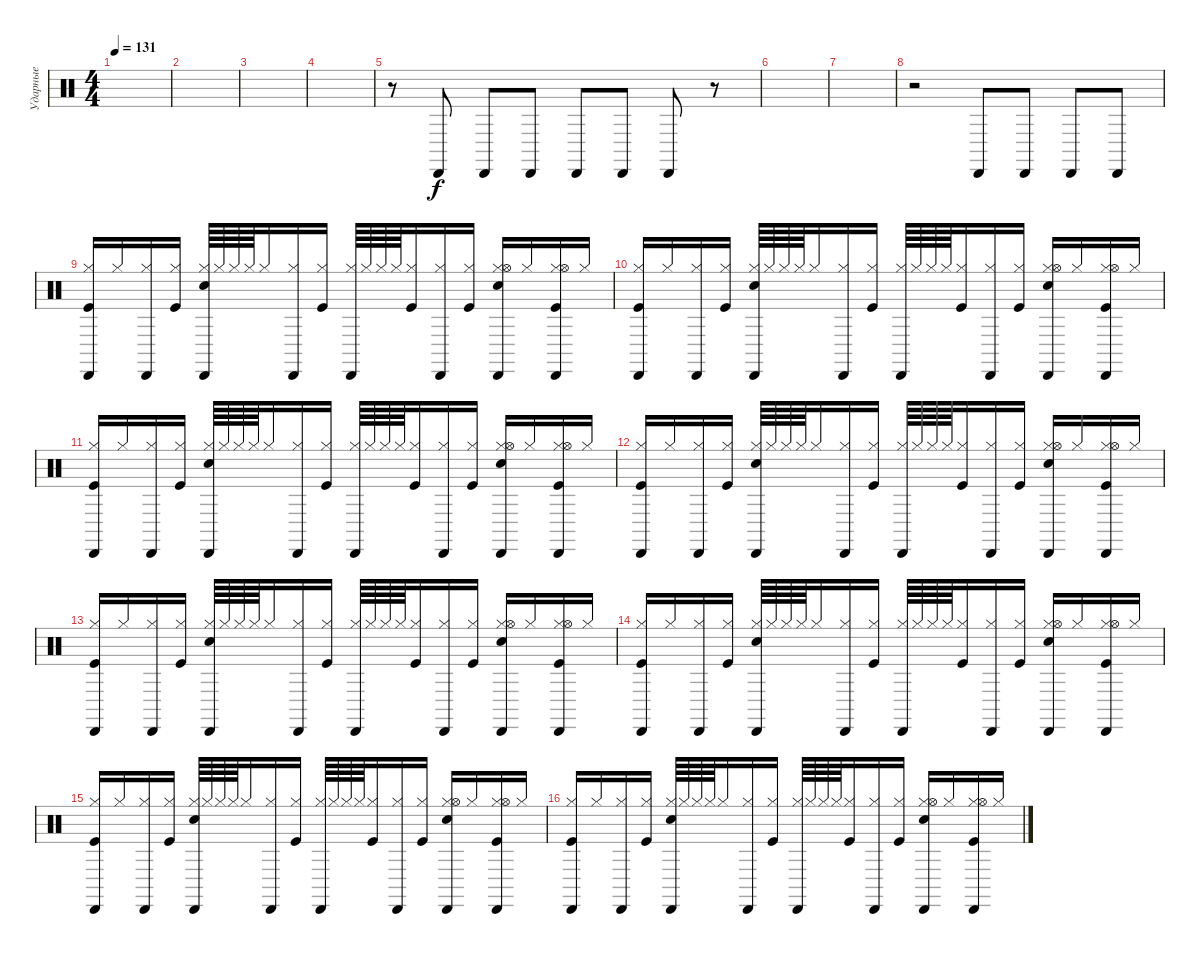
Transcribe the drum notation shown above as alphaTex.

\track ("Ударные" "Ударные") {instrument percussion}
\staff {score}
\articulation defaults
\ts (4 4)
\tempo 131
\clef neutral
\ks c
|
|
|
|
r.8 "Cabasa (hit)".8 "Cabasa (hit)".8 "Cabasa (hit)".8 "Cabasa (hit)".8 "Cabasa (hit)".8 "Cabasa (hit)".8 r.8 |
|
|
r.2 "Cabasa (hit)".8 "Cabasa (hit)".8 "Cabasa (hit)".8 "Cabasa (hit)".8 |
("Hi-Hat (closed)" "Kick (hit)" "Cabasa (hit)").16 "Hi-Hat (closed)".16 ("Hi-Hat (closed)" "Cabasa (hit)").16 ("Hi-Hat (closed)" "Kick (hit)").16 ("Hi-Hat (closed)" "Snare (hit) 2" "Cabasa (hit)").64 "Hi-Hat (closed)".64 "Hi-Hat (closed)".64 "Hi-Hat (closed)".64 "Hi-Hat (closed)".16 ("Hi-Hat (closed)" "Cabasa (hit)").16 ("Hi-Hat (closed)" "Kick (hit)").16 ("Hi-Hat (closed)" "Cabasa (hit)").64 "Hi-Hat (closed)".64 "Hi-Hat (closed)".64 "Hi-Hat (closed)".64 ("Hi-Hat (closed)" "Kick (hit)").16 ("Hi-Hat (closed)" "Cabasa (hit)").16 ("Hi-Hat (closed)" "Kick (hit)").16 ("Hi-Hat (closed)" "Hi-Hat (open)" "Snare (hit) 2" "Cabasa (hit)").16 "Hi-Hat (closed)".16 ("Hi-Hat (closed)" "Hi-Hat (open)" "Kick (hit)" "Cabasa (hit)").16 "Hi-Hat (closed)".16 |
("Hi-Hat (closed)" "Kick (hit)" "Cabasa (hit)").16 "Hi-Hat (closed)".16 ("Hi-Hat (closed)" "Cabasa (hit)").16 ("Hi-Hat (closed)" "Kick (hit)").16 ("Hi-Hat (closed)" "Snare (hit) 2" "Cabasa (hit)").64 "Hi-Hat (closed)".64 "Hi-Hat (closed)".64 "Hi-Hat (closed)".64 "Hi-Hat (closed)".16 ("Hi-Hat (closed)" "Cabasa (hit)").16 ("Hi-Hat (closed)" "Kick (hit)").16 ("Hi-Hat (closed)" "Cabasa (hit)").64 "Hi-Hat (closed)".64 "Hi-Hat (closed)".64 "Hi-Hat (closed)".64 ("Hi-Hat (closed)" "Kick (hit)").16 ("Hi-Hat (closed)" "Cabasa (hit)").16 ("Hi-Hat (closed)" "Kick (hit)").16 ("Hi-Hat (closed)" "Hi-Hat (open)" "Snare (hit) 2" "Cabasa (hit)").16 "Hi-Hat (closed)".16 ("Hi-Hat (closed)" "Hi-Hat (open)" "Kick (hit)" "Cabasa (hit)").16 "Hi-Hat (closed)".16 |
("Hi-Hat (closed)" "Kick (hit)" "Cabasa (hit)").16 "Hi-Hat (closed)".16 ("Hi-Hat (closed)" "Cabasa (hit)").16 ("Hi-Hat (closed)" "Kick (hit)").16 ("Hi-Hat (closed)" "Snare (hit) 2" "Cabasa (hit)").64 "Hi-Hat (closed)".64 "Hi-Hat (closed)".64 "Hi-Hat (closed)".64 "Hi-Hat (closed)".16 ("Hi-Hat (closed)" "Cabasa (hit)").16 ("Hi-Hat (closed)" "Kick (hit)").16 ("Hi-Hat (closed)" "Cabasa (hit)").64 "Hi-Hat (closed)".64 "Hi-Hat (closed)".64 "Hi-Hat (closed)".64 ("Hi-Hat (closed)" "Kick (hit)").16 ("Hi-Hat (closed)" "Cabasa (hit)").16 ("Hi-Hat (closed)" "Kick (hit)").16 ("Hi-Hat (closed)" "Hi-Hat (open)" "Snare (hit) 2" "Cabasa (hit)").16 "Hi-Hat (closed)".16 ("Hi-Hat (closed)" "Hi-Hat (open)" "Kick (hit)" "Cabasa (hit)").16 "Hi-Hat (closed)".16 |
("Hi-Hat (closed)" "Kick (hit)" "Cabasa (hit)").16 "Hi-Hat (closed)".16 ("Hi-Hat (closed)" "Cabasa (hit)").16 ("Hi-Hat (closed)" "Kick (hit)").16 ("Hi-Hat (closed)" "Snare (hit) 2" "Cabasa (hit)").64 "Hi-Hat (closed)".64 "Hi-Hat (closed)".64 "Hi-Hat (closed)".64 "Hi-Hat (closed)".16 ("Hi-Hat (closed)" "Cabasa (hit)").16 ("Hi-Hat (closed)" "Kick (hit)").16 ("Hi-Hat (closed)" "Cabasa (hit)").64 "Hi-Hat (closed)".64 "Hi-Hat (closed)".64 "Hi-Hat (closed)".64 ("Hi-Hat (closed)" "Kick (hit)").16 ("Hi-Hat (closed)" "Cabasa (hit)").16 ("Hi-Hat (closed)" "Kick (hit)").16 ("Hi-Hat (closed)" "Hi-Hat (open)" "Snare (hit) 2" "Cabasa (hit)").16 "Hi-Hat (closed)".16 ("Hi-Hat (closed)" "Hi-Hat (open)" "Kick (hit)" "Cabasa (hit)").16 "Hi-Hat (closed)".16 |
("Hi-Hat (closed)" "Kick (hit)" "Cabasa (hit)").16 "Hi-Hat (closed)".16 ("Hi-Hat (closed)" "Cabasa (hit)").16 ("Hi-Hat (closed)" "Kick (hit)").16 ("Hi-Hat (closed)" "Snare (hit) 2" "Cabasa (hit)").64 "Hi-Hat (closed)".64 "Hi-Hat (closed)".64 "Hi-Hat (closed)".64 "Hi-Hat (closed)".16 ("Hi-Hat (closed)" "Cabasa (hit)").16 ("Hi-Hat (closed)" "Kick (hit)").16 ("Hi-Hat (closed)" "Cabasa (hit)").64 "Hi-Hat (closed)".64 "Hi-Hat (closed)".64 "Hi-Hat (closed)".64 ("Hi-Hat (closed)" "Kick (hit)").16 ("Hi-Hat (closed)" "Cabasa (hit)").16 ("Hi-Hat (closed)" "Kick (hit)").16 ("Hi-Hat (closed)" "Hi-Hat (open)" "Snare (hit) 2" "Cabasa (hit)").16 "Hi-Hat (closed)".16 ("Hi-Hat (closed)" "Hi-Hat (open)" "Kick (hit)" "Cabasa (hit)").16 "Hi-Hat (closed)".16 |
("Hi-Hat (closed)" "Kick (hit)" "Cabasa (hit)").16 "Hi-Hat (closed)".16 ("Hi-Hat (closed)" "Cabasa (hit)").16 ("Hi-Hat (closed)" "Kick (hit)").16 ("Hi-Hat (closed)" "Snare (hit) 2" "Cabasa (hit)").64 "Hi-Hat (closed)".64 "Hi-Hat (closed)".64 "Hi-Hat (closed)".64 "Hi-Hat (closed)".16 ("Hi-Hat (closed)" "Cabasa (hit)").16 ("Hi-Hat (closed)" "Kick (hit)").16 ("Hi-Hat (closed)" "Cabasa (hit)").64 "Hi-Hat (closed)".64 "Hi-Hat (closed)".64 "Hi-Hat (closed)".64 ("Hi-Hat (closed)" "Kick (hit)").16 ("Hi-Hat (closed)" "Cabasa (hit)").16 ("Hi-Hat (closed)" "Kick (hit)").16 ("Hi-Hat (closed)" "Hi-Hat (open)" "Snare (hit) 2" "Cabasa (hit)").16 "Hi-Hat (closed)".16 ("Hi-Hat (closed)" "Hi-Hat (open)" "Kick (hit)" "Cabasa (hit)").16 "Hi-Hat (closed)".16 |
("Hi-Hat (closed)" "Kick (hit)" "Cabasa (hit)").16 "Hi-Hat (closed)".16 ("Hi-Hat (closed)" "Cabasa (hit)").16 ("Hi-Hat (closed)" "Kick (hit)").16 ("Hi-Hat (closed)" "Snare (hit) 2" "Cabasa (hit)").64 "Hi-Hat (closed)".64 "Hi-Hat (closed)".64 "Hi-Hat (closed)".64 "Hi-Hat (closed)".16 ("Hi-Hat (closed)" "Cabasa (hit)").16 ("Hi-Hat (closed)" "Kick (hit)").16 ("Hi-Hat (closed)" "Cabasa (hit)").64 "Hi-Hat (closed)".64 "Hi-Hat (closed)".64 "Hi-Hat (closed)".64 ("Hi-Hat (closed)" "Kick (hit)").16 ("Hi-Hat (closed)" "Cabasa (hit)").16 ("Hi-Hat (closed)" "Kick (hit)").16 ("Hi-Hat (closed)" "Hi-Hat (open)" "Snare (hit) 2" "Cabasa (hit)").16 "Hi-Hat (closed)".16 ("Hi-Hat (closed)" "Hi-Hat (open)" "Kick (hit)" "Cabasa (hit)").16 "Hi-Hat (closed)".16 |
("Hi-Hat (closed)" "Kick (hit)" "Cabasa (hit)").16 "Hi-Hat (closed)".16 ("Hi-Hat (closed)" "Cabasa (hit)").16 ("Hi-Hat (closed)" "Kick (hit)").16 ("Hi-Hat (closed)" "Snare (hit) 2" "Cabasa (hit)").64 "Hi-Hat (closed)".64 "Hi-Hat (closed)".64 "Hi-Hat (closed)".64 "Hi-Hat (closed)".16 ("Hi-Hat (closed)" "Cabasa (hit)").16 ("Hi-Hat (closed)" "Kick (hit)").16 ("Hi-Hat (closed)" "Cabasa (hit)").64 "Hi-Hat (closed)".64 "Hi-Hat (closed)".64 "Hi-Hat (closed)".64 ("Hi-Hat (closed)" "Kick (hit)").16 ("Hi-Hat (closed)" "Cabasa (hit)").16 ("Hi-Hat (closed)" "Kick (hit)").16 ("Hi-Hat (closed)" "Hi-Hat (open)" "Snare (hit) 2" "Cabasa (hit)").16 "Hi-Hat (closed)".16 ("Hi-Hat (closed)" "Hi-Hat (open)" "Kick (hit)" "Cabasa (hit)").16 "Hi-Hat (closed)".16
